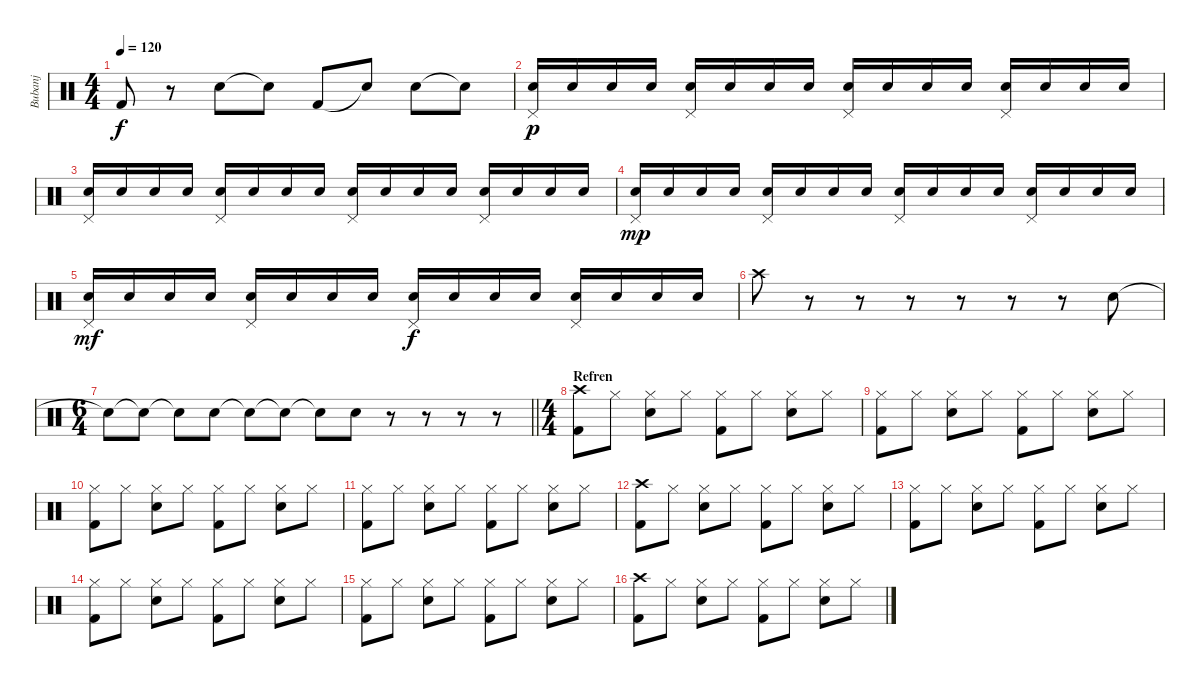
\track ("Bubanj" "Bubanj") {instrument percussion}
\staff {score}
\articulation defaults
\ts (4 4)
\tempo 120
\clef neutral
\ks c "Kick (hit) 2".8{dy f}
r.8 "Hand Clap (hit)".8 "Snare (hit)"{t}.8 "Kick (hit) 2".8 "Snare (hit)"{t}.8 "Hand Clap (hit)".8 "Snare (hit)"{t}.8 |
("Electric Snare (hit)" "Pedal Hi-Hat (hit)").16{dy p} "Electric Snare (hit)".16 "Electric Snare (hit)".16 "Electric Snare (hit)".16 ("Electric Snare (hit)" "Pedal Hi-Hat (hit)").16 "Electric Snare (hit)".16 "Electric Snare (hit)".16 "Electric Snare (hit)".16 ("Electric Snare (hit)" "Pedal Hi-Hat (hit)").16 "Electric Snare (hit)".16 "Electric Snare (hit)".16 "Electric Snare (hit)".16 ("Electric Snare (hit)" "Pedal Hi-Hat (hit)").16 "Electric Snare (hit)".16 "Electric Snare (hit)".16 "Electric Snare (hit)".16 |
("Electric Snare (hit)" "Pedal Hi-Hat (hit)").16 "Electric Snare (hit)".16 "Electric Snare (hit)".16 "Electric Snare (hit)".16 ("Electric Snare (hit)" "Pedal Hi-Hat (hit)").16 "Electric Snare (hit)".16 "Electric Snare (hit)".16 "Electric Snare (hit)".16 ("Electric Snare (hit)" "Pedal Hi-Hat (hit)").16 "Electric Snare (hit)".16 "Electric Snare (hit)".16 "Electric Snare (hit)".16 ("Electric Snare (hit)" "Pedal Hi-Hat (hit)").16 "Electric Snare (hit)".16 "Electric Snare (hit)".16 "Electric Snare (hit)".16 |
("Electric Snare (hit)" "Pedal Hi-Hat (hit)").16{dy mp} "Electric Snare (hit)".16 "Electric Snare (hit)".16 "Electric Snare (hit)".16 ("Electric Snare (hit)" "Pedal Hi-Hat (hit)").16 "Electric Snare (hit)".16 "Electric Snare (hit)".16 "Electric Snare (hit)".16 ("Electric Snare (hit)" "Pedal Hi-Hat (hit)").16 "Electric Snare (hit)".16 "Electric Snare (hit)".16 "Electric Snare (hit)".16 ("Electric Snare (hit)" "Pedal Hi-Hat (hit)").16 "Electric Snare (hit)".16 "Electric Snare (hit)".16 "Electric Snare (hit)".16 |
("Electric Snare (hit)" "Pedal Hi-Hat (hit)").16{dy mf volume 16} "Electric Snare (hit)".16 "Electric Snare (hit)".16 "Electric Snare (hit)".16 ("Electric Snare (hit)" "Pedal Hi-Hat (hit)").16 "Electric Snare (hit)".16 "Electric Snare (hit)".16 "Electric Snare (hit)".16 ("Electric Snare (hit)" "Pedal Hi-Hat (hit)").16{dy f} "Electric Snare (hit)".16 "Electric Snare (hit)".16 "Electric Snare (hit)".16 ("Electric Snare (hit)" "Pedal Hi-Hat (hit)").16 "Electric Snare (hit)".16 "Electric Snare (hit)".16 "Electric Snare (hit)".16 |
"Crash high (hit)".8 r.8 r.8 r.8 r.8 r.8 r.8 "Electric Snare (hit)".8 |
\ts (6 4)
\barLineRight lightlight "Snare (hit)"{t}.8 "Snare (hit)"{t}.8 "Snare (hit)"{t}.8 "Electric Snare (hit)".8 "Snare (hit)"{t}.8 "Snare (hit)"{t}.8 "Snare (hit)"{t}.8 "Electric Snare (hit)".8
r.8 r.8 r.8 r.8 |
\ts (4 4)
\section ("" "Refren")
("Crash high (hit)" "Kick (hit) 2").8 "Hi-Hat (closed)".8 ("Hi-Hat (closed)" "Electric Snare (hit)").8 "Hi-Hat (closed)".8 ("Hi-Hat (closed)" "Kick (hit) 2").8 "Hi-Hat (closed)".8 ("Hi-Hat (closed)" "Electric Snare (hit)").8 "Hi-Hat (closed)".8 |
("Hi-Hat (closed)" "Kick (hit) 2").8 "Hi-Hat (closed)".8 ("Hi-Hat (closed)" "Electric Snare (hit)").8 "Hi-Hat (closed)".8 ("Hi-Hat (closed)" "Kick (hit) 2").8 "Hi-Hat (closed)".8 ("Hi-Hat (closed)" "Electric Snare (hit)").8 "Hi-Hat (closed)".8 |
("Hi-Hat (closed)" "Kick (hit) 2").8 "Hi-Hat (closed)".8 ("Hi-Hat (closed)" "Electric Snare (hit)").8 "Hi-Hat (closed)".8 ("Hi-Hat (closed)" "Kick (hit) 2").8 "Hi-Hat (closed)".8 ("Hi-Hat (closed)" "Electric Snare (hit)").8 "Hi-Hat (closed)".8 |
("Hi-Hat (closed)" "Kick (hit) 2").8 "Hi-Hat (closed)".8 ("Hi-Hat (closed)" "Electric Snare (hit)").8 "Hi-Hat (closed)".8 ("Hi-Hat (closed)" "Kick (hit) 2").8 "Hi-Hat (closed)".8 ("Hi-Hat (closed)" "Electric Snare (hit)").8 "Hi-Hat (closed)".8 |
("Crash high (hit)" "Kick (hit) 2").8 "Hi-Hat (closed)".8 ("Hi-Hat (closed)" "Electric Snare (hit)").8 "Hi-Hat (closed)".8 ("Hi-Hat (closed)" "Kick (hit) 2").8 "Hi-Hat (closed)".8 ("Hi-Hat (closed)" "Electric Snare (hit)").8 "Hi-Hat (closed)".8 |
("Hi-Hat (closed)" "Kick (hit) 2").8 "Hi-Hat (closed)".8 ("Hi-Hat (closed)" "Electric Snare (hit)").8 "Hi-Hat (closed)".8 ("Hi-Hat (closed)" "Kick (hit) 2").8 "Hi-Hat (closed)".8 ("Hi-Hat (closed)" "Electric Snare (hit)").8 "Hi-Hat (closed)".8 |
("Hi-Hat (closed)" "Kick (hit) 2").8 "Hi-Hat (closed)".8 ("Hi-Hat (closed)" "Electric Snare (hit)").8 "Hi-Hat (closed)".8 ("Hi-Hat (closed)" "Kick (hit) 2").8 "Hi-Hat (closed)".8 ("Hi-Hat (closed)" "Electric Snare (hit)").8 "Hi-Hat (closed)".8 |
("Hi-Hat (closed)" "Kick (hit) 2").8 "Hi-Hat (closed)".8 ("Hi-Hat (closed)" "Electric Snare (hit)").8 "Hi-Hat (closed)".8 ("Hi-Hat (closed)" "Kick (hit) 2").8 "Hi-Hat (closed)".8 ("Hi-Hat (closed)" "Electric Snare (hit)").8 "Hi-Hat (closed)".8 |
("Crash high (hit)" "Kick (hit) 2").8 "Hi-Hat (closed)".8 ("Hi-Hat (closed)" "Electric Snare (hit)").8 "Hi-Hat (closed)".8 ("Hi-Hat (closed)" "Kick (hit) 2").8 "Hi-Hat (closed)".8 ("Hi-Hat (closed)" "Electric Snare (hit)").8 "Hi-Hat (closed)".8
